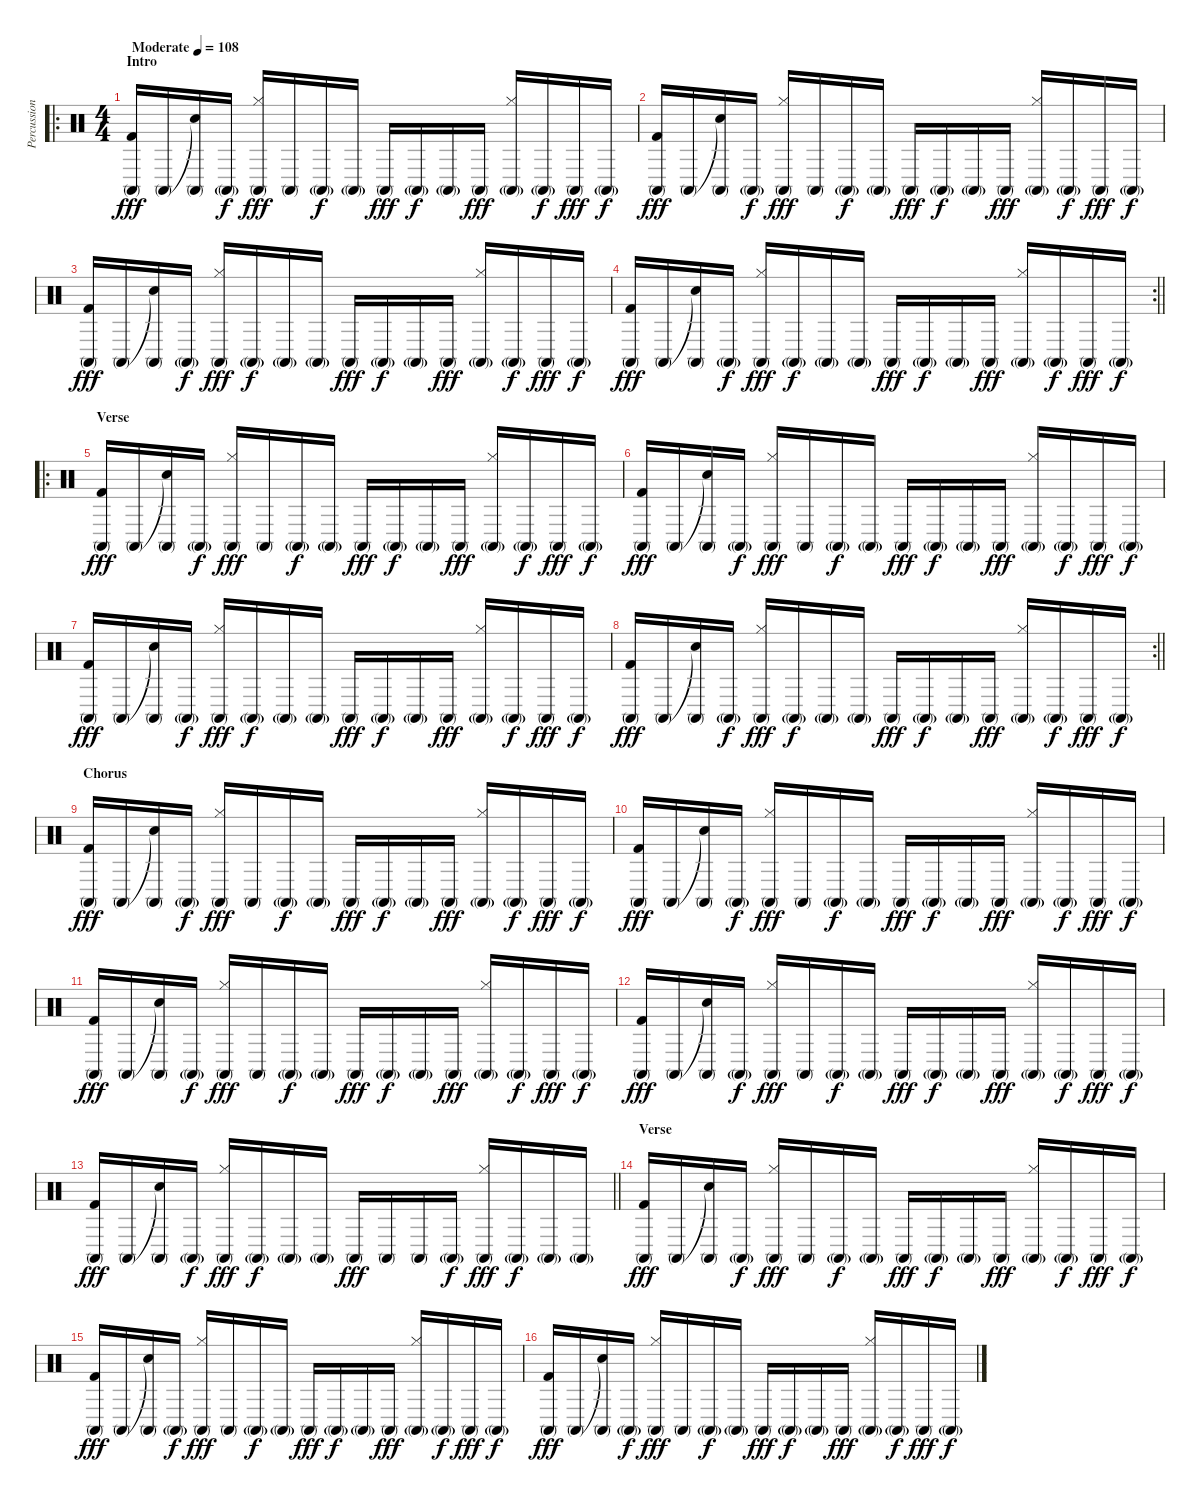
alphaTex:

\track ("Percussion" "Percussion") {instrument percussion}
\staff {score}
\articulation defaults
\ro
\ts (4 4)
\section ("" "Intro")
\tempo (108 "Moderate")
\clef neutral
\ks c
("Conga high (mute)" "Kick (hit) 2").16{dy fff} "Conga high (mute)".16 ("Snare (hit)"{t} "Conga high (mute)").16 "Conga high (mute)"{g}.16{dy f} ("Hi-Hat (closed)" "Conga high (mute)").16{dy fff} "Conga high (mute)".16 "Conga high (mute)"{g}.16{dy f} "Conga high (mute)"{g}.16 "Conga high (mute)".16{dy fff} "Conga high (mute)"{g}.16{dy f} "Conga high (mute)"{g}.16 "Conga high (mute)".16{dy fff} ("Hi-Hat (closed)" "Conga high (mute)"{g}).16 "Conga high (mute)"{g}.16{dy f} "Conga high (mute)".16{dy fff} "Conga high (mute)"{g}.16{dy f} |
("Conga high (mute)" "Kick (hit) 2").16{dy fff} "Conga high (mute)".16 ("Snare (hit)"{t} "Conga high (mute)").16 "Conga high (mute)"{g}.16{dy f} ("Hi-Hat (closed)" "Conga high (mute)").16{dy fff} "Conga high (mute)".16 "Conga high (mute)"{g}.16{dy f} "Conga high (mute)"{g}.16 "Conga high (mute)".16{dy fff} "Conga high (mute)"{g}.16{dy f} "Conga high (mute)"{g}.16 "Conga high (mute)".16{dy fff} ("Hi-Hat (closed)" "Conga high (mute)"{g}).16 "Conga high (mute)"{g}.16{dy f} "Conga high (mute)".16{dy fff} "Conga high (mute)"{g}.16{dy f} |
("Conga high (mute)" "Kick (hit) 2").16{dy fff} "Conga high (mute)".16 ("Snare (hit)"{t} "Conga high (mute)").16 "Conga high (mute)"{g}.16{dy f} ("Hi-Hat (closed)" "Conga high (mute)").16{dy fff} "Conga high (mute)"{g}.16{dy f} "Conga high (mute)"{g}.16 "Conga high (mute)"{g}.16 "Conga high (mute)".16{dy fff} "Conga high (mute)"{g}.16{dy f} "Conga high (mute)"{g}.16 "Conga high (mute)".16{dy fff} ("Hi-Hat (closed)" "Conga high (mute)"{g}).16 "Conga high (mute)"{g}.16{dy f} "Conga high (mute)".16{dy fff} "Conga high (mute)"{g}.16{dy f} |
\rc 2
\barLineRight lightlight
("Conga high (mute)" "Kick (hit) 2").16{dy fff} "Conga high (mute)".16 ("Snare (hit)"{t} "Conga high (mute)").16 "Conga high (mute)"{g}.16{dy f} ("Hi-Hat (closed)" "Conga high (mute)").16{dy fff} "Conga high (mute)"{g}.16{dy f} "Conga high (mute)"{g}.16 "Conga high (mute)"{g}.16 "Conga high (mute)".16{dy fff} "Conga high (mute)"{g}.16{dy f} "Conga high (mute)"{g}.16 "Conga high (mute)".16{dy fff} ("Hi-Hat (closed)" "Conga high (mute)"{g}).16 "Conga high (mute)"{g}.16{dy f} "Conga high (mute)".16{dy fff} "Conga high (mute)"{g}.16{dy f} |
\ro
\section ("" "Verse")
("Conga high (mute)" "Kick (hit) 2").16{dy fff} "Conga high (mute)".16 ("Snare (hit)"{t} "Conga high (mute)").16 "Conga high (mute)"{g}.16{dy f} ("Hi-Hat (closed)" "Conga high (mute)").16{dy fff} "Conga high (mute)".16 "Conga high (mute)"{g}.16{dy f} "Conga high (mute)"{g}.16 "Conga high (mute)".16{dy fff} "Conga high (mute)"{g}.16{dy f} "Conga high (mute)"{g}.16 "Conga high (mute)".16{dy fff} ("Hi-Hat (closed)" "Conga high (mute)"{g}).16 "Conga high (mute)"{g}.16{dy f} "Conga high (mute)".16{dy fff} "Conga high (mute)"{g}.16{dy f} |
("Conga high (mute)" "Kick (hit) 2").16{dy fff} "Conga high (mute)".16 ("Snare (hit)"{t} "Conga high (mute)").16 "Conga high (mute)"{g}.16{dy f} ("Hi-Hat (closed)" "Conga high (mute)").16{dy fff} "Conga high (mute)".16 "Conga high (mute)"{g}.16{dy f} "Conga high (mute)"{g}.16 "Conga high (mute)".16{dy fff} "Conga high (mute)"{g}.16{dy f} "Conga high (mute)"{g}.16 "Conga high (mute)".16{dy fff} ("Hi-Hat (closed)" "Conga high (mute)"{g}).16 "Conga high (mute)"{g}.16{dy f} "Conga high (mute)".16{dy fff} "Conga high (mute)"{g}.16{dy f} |
("Conga high (mute)" "Kick (hit) 2").16{dy fff} "Conga high (mute)".16 ("Snare (hit)"{t} "Conga high (mute)").16 "Conga high (mute)"{g}.16{dy f} ("Hi-Hat (closed)" "Conga high (mute)").16{dy fff} "Conga high (mute)"{g}.16{dy f} "Conga high (mute)"{g}.16 "Conga high (mute)"{g}.16 "Conga high (mute)".16{dy fff} "Conga high (mute)"{g}.16{dy f} "Conga high (mute)"{g}.16 "Conga high (mute)".16{dy fff} ("Hi-Hat (closed)" "Conga high (mute)"{g}).16 "Conga high (mute)"{g}.16{dy f} "Conga high (mute)".16{dy fff} "Conga high (mute)"{g}.16{dy f} |
\rc 2
\barLineRight lightlight
("Conga high (mute)" "Kick (hit) 2").16{dy fff} "Conga high (mute)".16 ("Snare (hit)"{t} "Conga high (mute)").16 "Conga high (mute)"{g}.16{dy f} ("Hi-Hat (closed)" "Conga high (mute)").16{dy fff} "Conga high (mute)"{g}.16{dy f} "Conga high (mute)"{g}.16 "Conga high (mute)"{g}.16 "Conga high (mute)".16{dy fff} "Conga high (mute)"{g}.16{dy f} "Conga high (mute)"{g}.16 "Conga high (mute)".16{dy fff} ("Hi-Hat (closed)" "Conga high (mute)"{g}).16 "Conga high (mute)"{g}.16{dy f} "Conga high (mute)".16{dy fff} "Conga high (mute)"{g}.16{dy f} |
\section ("" "Chorus")
("Conga high (mute)" "Kick (hit) 2").16{dy fff} "Conga high (mute)".16 ("Snare (hit)"{t} "Conga high (mute)").16 "Conga high (mute)"{g}.16{dy f} ("Hi-Hat (closed)" "Conga high (mute)").16{dy fff} "Conga high (mute)".16 "Conga high (mute)"{g}.16{dy f} "Conga high (mute)"{g}.16 "Conga high (mute)".16{dy fff} "Conga high (mute)"{g}.16{dy f} "Conga high (mute)"{g}.16 "Conga high (mute)".16{dy fff} ("Hi-Hat (closed)" "Conga high (mute)"{g}).16 "Conga high (mute)"{g}.16{dy f} "Conga high (mute)".16{dy fff} "Conga high (mute)"{g}.16{dy f} |
("Conga high (mute)" "Kick (hit) 2").16{dy fff} "Conga high (mute)".16 ("Snare (hit)"{t} "Conga high (mute)").16 "Conga high (mute)"{g}.16{dy f} ("Hi-Hat (closed)" "Conga high (mute)").16{dy fff} "Conga high (mute)".16 "Conga high (mute)"{g}.16{dy f} "Conga high (mute)"{g}.16 "Conga high (mute)".16{dy fff} "Conga high (mute)"{g}.16{dy f} "Conga high (mute)"{g}.16 "Conga high (mute)".16{dy fff} ("Hi-Hat (closed)" "Conga high (mute)"{g}).16 "Conga high (mute)"{g}.16{dy f} "Conga high (mute)".16{dy fff} "Conga high (mute)"{g}.16{dy f} |
("Conga high (mute)" "Kick (hit) 2").16{dy fff} "Conga high (mute)".16 ("Snare (hit)"{t} "Conga high (mute)").16 "Conga high (mute)"{g}.16{dy f} ("Hi-Hat (closed)" "Conga high (mute)").16{dy fff} "Conga high (mute)".16 "Conga high (mute)"{g}.16{dy f} "Conga high (mute)"{g}.16 "Conga high (mute)".16{dy fff} "Conga high (mute)"{g}.16{dy f} "Conga high (mute)"{g}.16 "Conga high (mute)".16{dy fff} ("Hi-Hat (closed)" "Conga high (mute)"{g}).16 "Conga high (mute)"{g}.16{dy f} "Conga high (mute)".16{dy fff} "Conga high (mute)"{g}.16{dy f} |
("Conga high (mute)" "Kick (hit) 2").16{dy fff} "Conga high (mute)".16 ("Snare (hit)"{t} "Conga high (mute)").16 "Conga high (mute)"{g}.16{dy f} ("Hi-Hat (closed)" "Conga high (mute)").16{dy fff} "Conga high (mute)".16 "Conga high (mute)"{g}.16{dy f} "Conga high (mute)"{g}.16 "Conga high (mute)".16{dy fff} "Conga high (mute)"{g}.16{dy f} "Conga high (mute)"{g}.16 "Conga high (mute)".16{dy fff} ("Hi-Hat (closed)" "Conga high (mute)"{g}).16 "Conga high (mute)"{g}.16{dy f} "Conga high (mute)".16{dy fff} "Conga high (mute)"{g}.16{dy f} |
\barLineRight lightlight
("Conga high (mute)" "Kick (hit) 2").16{dy fff} "Conga high (mute)".16 ("Snare (hit)"{t} "Conga high (mute)").16 "Conga high (mute)"{g}.16{dy f} ("Hi-Hat (closed)" "Conga high (mute)").16{dy fff} "Conga high (mute)"{g}.16{dy f} "Conga high (mute)"{g}.16 "Conga high (mute)"{g}.16 "Conga high (mute)".16{dy fff} "Conga high (mute)".16 "Conga high (mute)".16 "Conga high (mute)"{g}.16{dy f} ("Hi-Hat (closed)" "Conga high (mute)").16{dy fff} "Conga high (mute)"{g}.16{dy f} "Conga high (mute)"{g}.16 "Conga high (mute)"{g}.16 |
\section ("" "Verse")
("Conga high (mute)" "Kick (hit) 2").16{dy fff} "Conga high (mute)".16 ("Snare (hit)"{t} "Conga high (mute)").16 "Conga high (mute)"{g}.16{dy f} ("Hi-Hat (closed)" "Conga high (mute)").16{dy fff} "Conga high (mute)".16 "Conga high (mute)"{g}.16{dy f} "Conga high (mute)"{g}.16 "Conga high (mute)".16{dy fff} "Conga high (mute)"{g}.16{dy f} "Conga high (mute)"{g}.16 "Conga high (mute)".16{dy fff} ("Hi-Hat (closed)" "Conga high (mute)"{g}).16 "Conga high (mute)"{g}.16{dy f} "Conga high (mute)".16{dy fff} "Conga high (mute)"{g}.16{dy f} |
("Conga high (mute)" "Kick (hit) 2").16{dy fff} "Conga high (mute)".16 ("Snare (hit)"{t} "Conga high (mute)").16 "Conga high (mute)"{g}.16{dy f} ("Hi-Hat (closed)" "Conga high (mute)").16{dy fff} "Conga high (mute)".16 "Conga high (mute)"{g}.16{dy f} "Conga high (mute)"{g}.16 "Conga high (mute)".16{dy fff} "Conga high (mute)"{g}.16{dy f} "Conga high (mute)"{g}.16 "Conga high (mute)".16{dy fff} ("Hi-Hat (closed)" "Conga high (mute)"{g}).16 "Conga high (mute)"{g}.16{dy f} "Conga high (mute)".16{dy fff} "Conga high (mute)"{g}.16{dy f} |
("Conga high (mute)" "Kick (hit) 2").16{dy fff} "Conga high (mute)".16 ("Snare (hit)"{t} "Conga high (mute)").16 "Conga high (mute)"{g}.16{dy f} ("Hi-Hat (closed)" "Conga high (mute)").16{dy fff} "Conga high (mute)".16 "Conga high (mute)"{g}.16{dy f} "Conga high (mute)"{g}.16 "Conga high (mute)".16{dy fff} "Conga high (mute)"{g}.16{dy f} "Conga high (mute)"{g}.16 "Conga high (mute)".16{dy fff} ("Hi-Hat (closed)" "Conga high (mute)"{g}).16 "Conga high (mute)"{g}.16{dy f} "Conga high (mute)".16{dy fff} "Conga high (mute)"{g}.16{dy f}
